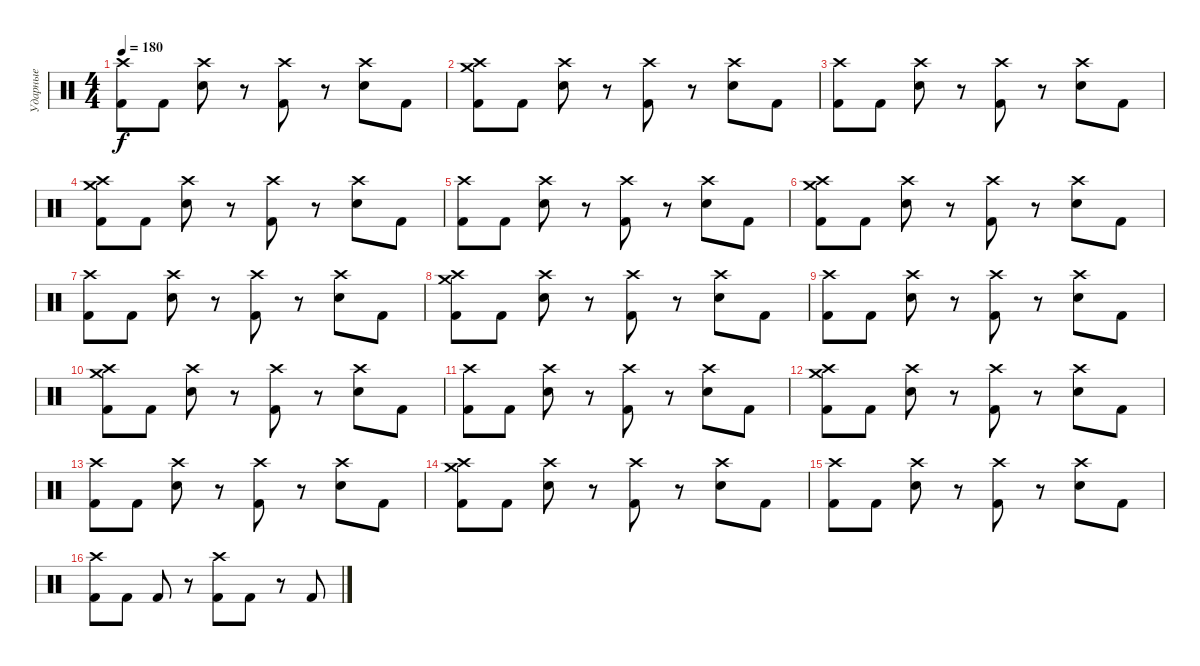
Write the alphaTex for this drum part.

\track ("Ударные" "Ударные") {instrument percussion}
\staff {score}
\articulation defaults
\ts (4 4)
\tempo 180
\clef neutral
\ks c
("Crash high (hit)" "Kick (hit) 2").8{dy f} "Kick (hit) 2".8 ("Crash high (hit)" "Snare (hit) 2").8 r.8 ("Crash high (hit)" "Kick (hit) 2").8 r.8 ("Crash high (hit)" "Snare (hit) 2").8 "Kick (hit) 2".8 |
("Crash medium (hit)" "Crash high (hit)" "Kick (hit) 2").8 "Kick (hit) 2".8 ("Crash high (hit)" "Snare (hit) 2").8 r.8 ("Crash high (hit)" "Kick (hit) 2").8 r.8 ("Crash high (hit)" "Snare (hit) 2").8 "Kick (hit) 2".8 |
("Crash high (hit)" "Kick (hit) 2").8 "Kick (hit) 2".8 ("Crash high (hit)" "Snare (hit) 2").8 r.8 ("Crash high (hit)" "Kick (hit) 2").8 r.8 ("Crash high (hit)" "Snare (hit) 2").8 "Kick (hit) 2".8 |
("Crash medium (hit)" "Crash high (hit)" "Kick (hit) 2").8 "Kick (hit) 2".8 ("Crash high (hit)" "Snare (hit) 2").8 r.8 ("Crash high (hit)" "Kick (hit) 2").8 r.8 ("Crash high (hit)" "Snare (hit) 2").8 "Kick (hit) 2".8 |
("Crash high (hit)" "Kick (hit) 2").8 "Kick (hit) 2".8 ("Crash high (hit)" "Snare (hit) 2").8 r.8 ("Crash high (hit)" "Kick (hit) 2").8 r.8 ("Crash high (hit)" "Snare (hit) 2").8 "Kick (hit) 2".8 |
("Crash medium (hit)" "Crash high (hit)" "Kick (hit) 2").8 "Kick (hit) 2".8 ("Crash high (hit)" "Snare (hit) 2").8 r.8 ("Crash high (hit)" "Kick (hit) 2").8 r.8 ("Crash high (hit)" "Snare (hit) 2").8 "Kick (hit) 2".8 |
("Crash high (hit)" "Kick (hit) 2").8 "Kick (hit) 2".8 ("Crash high (hit)" "Snare (hit) 2").8 r.8 ("Crash high (hit)" "Kick (hit) 2").8 r.8 ("Crash high (hit)" "Snare (hit) 2").8 "Kick (hit) 2".8 |
("Crash medium (hit)" "Crash high (hit)" "Kick (hit) 2").8 "Kick (hit) 2".8 ("Crash high (hit)" "Snare (hit) 2").8 r.8 ("Crash high (hit)" "Kick (hit) 2").8 r.8 ("Crash high (hit)" "Snare (hit) 2").8 "Kick (hit) 2".8 |
("Crash high (hit)" "Kick (hit) 2").8 "Kick (hit) 2".8 ("Crash high (hit)" "Snare (hit) 2").8 r.8 ("Crash high (hit)" "Kick (hit) 2").8 r.8 ("Crash high (hit)" "Snare (hit) 2").8 "Kick (hit) 2".8 |
("Crash medium (hit)" "Crash high (hit)" "Kick (hit) 2").8 "Kick (hit) 2".8 ("Crash high (hit)" "Snare (hit) 2").8 r.8 ("Crash high (hit)" "Kick (hit) 2").8 r.8 ("Crash high (hit)" "Snare (hit) 2").8 "Kick (hit) 2".8 |
("Crash high (hit)" "Kick (hit) 2").8 "Kick (hit) 2".8 ("Crash high (hit)" "Snare (hit) 2").8 r.8 ("Crash high (hit)" "Kick (hit) 2").8 r.8 ("Crash high (hit)" "Snare (hit) 2").8 "Kick (hit) 2".8 |
("Crash medium (hit)" "Crash high (hit)" "Kick (hit) 2").8 "Kick (hit) 2".8 ("Crash high (hit)" "Snare (hit) 2").8 r.8 ("Crash high (hit)" "Kick (hit) 2").8 r.8 ("Crash high (hit)" "Snare (hit) 2").8 "Kick (hit) 2".8 |
("Crash high (hit)" "Kick (hit) 2").8 "Kick (hit) 2".8 ("Crash high (hit)" "Snare (hit) 2").8 r.8 ("Crash high (hit)" "Kick (hit) 2").8 r.8 ("Crash high (hit)" "Snare (hit) 2").8 "Kick (hit) 2".8 |
("Crash medium (hit)" "Crash high (hit)" "Kick (hit) 2").8 "Kick (hit) 2".8 ("Crash high (hit)" "Snare (hit) 2").8 r.8 ("Crash high (hit)" "Kick (hit) 2").8 r.8 ("Crash high (hit)" "Snare (hit) 2").8 "Kick (hit) 2".8 |
("Crash high (hit)" "Kick (hit) 2").8 "Kick (hit) 2".8 ("Crash high (hit)" "Snare (hit) 2").8 r.8 ("Crash high (hit)" "Kick (hit) 2").8 r.8 ("Crash high (hit)" "Snare (hit) 2").8 "Kick (hit) 2".8 |
("Crash high (hit)" "Kick (hit) 2").8 "Kick (hit) 2".8 "Kick (hit) 2".8 r.8 ("Crash high (hit)" "Kick (hit) 2").8 "Kick (hit) 2".8 r.8 "Kick (hit) 2".8
